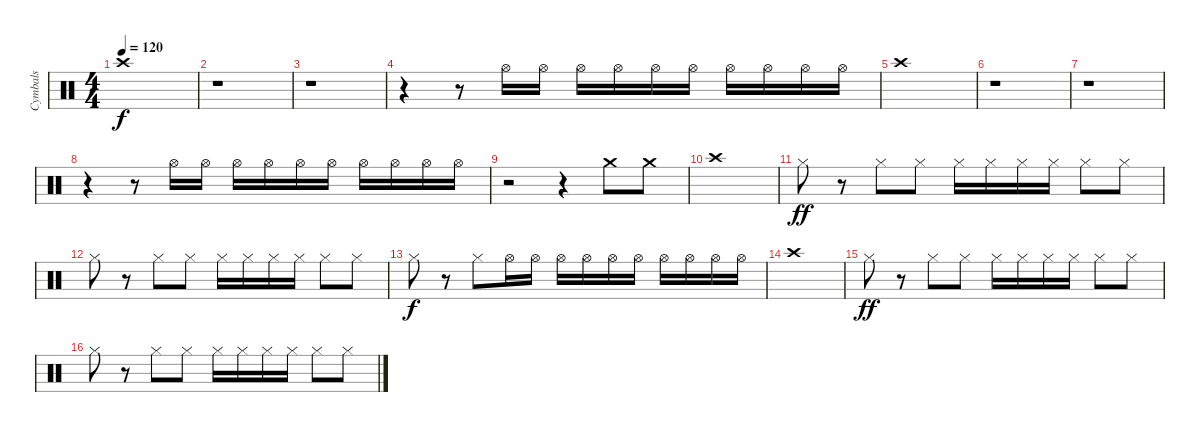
\track ("Cymbals" "Cymbals") {instrument percussion}
\staff {score}
\articulation defaults
\ts (4 4)
\tempo 120
\clef neutral
\ks c "Crash high (hit)".1{dy f}
|
r.1 |
r.1 |
r.4 r.8 "Hi-Hat (open)".16 "Hi-Hat (open)".16 "Hi-Hat (open)".16 "Hi-Hat (open)".16 "Hi-Hat (open)".16 "Hi-Hat (open)".16 "Hi-Hat (open)".16 "Hi-Hat (open)".16 "Hi-Hat (open)".16 "Hi-Hat (open)".16 |
"Crash high (hit)".1 |
r.1 |
r.1 |
r.4 r.8 "Hi-Hat (open)".16 "Hi-Hat (open)".16 "Hi-Hat (open)".16 "Hi-Hat (open)".16 "Hi-Hat (open)".16 "Hi-Hat (open)".16 "Hi-Hat (open)".16 "Hi-Hat (open)".16 "Hi-Hat (open)".16 "Hi-Hat (open)".16 |
r.2 r.4 "Crash medium (hit)".8 "Crash medium (hit)".8 |
"Crash high (hit)".1 |
"Hi-Hat (closed)".8{dy ff} r.8 "Hi-Hat (closed)".8 "Hi-Hat (closed)".8 "Hi-Hat (closed)".16 "Hi-Hat (closed)".16 "Hi-Hat (closed)".16 "Hi-Hat (closed)".16 "Hi-Hat (closed)".8 "Hi-Hat (closed)".8 |
"Hi-Hat (closed)".8 r.8 "Hi-Hat (closed)".8 "Hi-Hat (closed)".8 "Hi-Hat (closed)".16 "Hi-Hat (closed)".16 "Hi-Hat (closed)".16 "Hi-Hat (closed)".16 "Hi-Hat (closed)".8 "Hi-Hat (closed)".8 |
"Hi-Hat (closed)".8{dy f} r.8 "Hi-Hat (closed)".8 "Hi-Hat (open)".16 "Hi-Hat (open)".16 "Hi-Hat (open)".16 "Hi-Hat (open)".16 "Hi-Hat (open)".16 "Hi-Hat (open)".16 "Hi-Hat (open)".16 "Hi-Hat (open)".16 "Hi-Hat (open)".16 "Hi-Hat (open)".16 |
"Crash high (hit)".1 |
"Hi-Hat (closed)".8{dy ff} r.8 "Hi-Hat (closed)".8 "Hi-Hat (closed)".8 "Hi-Hat (closed)".16 "Hi-Hat (closed)".16 "Hi-Hat (closed)".16 "Hi-Hat (closed)".16 "Hi-Hat (closed)".8 "Hi-Hat (closed)".8 |
"Hi-Hat (closed)".8 r.8 "Hi-Hat (closed)".8 "Hi-Hat (closed)".8 "Hi-Hat (closed)".16 "Hi-Hat (closed)".16 "Hi-Hat (closed)".16 "Hi-Hat (closed)".16 "Hi-Hat (closed)".8 "Hi-Hat (closed)".8
